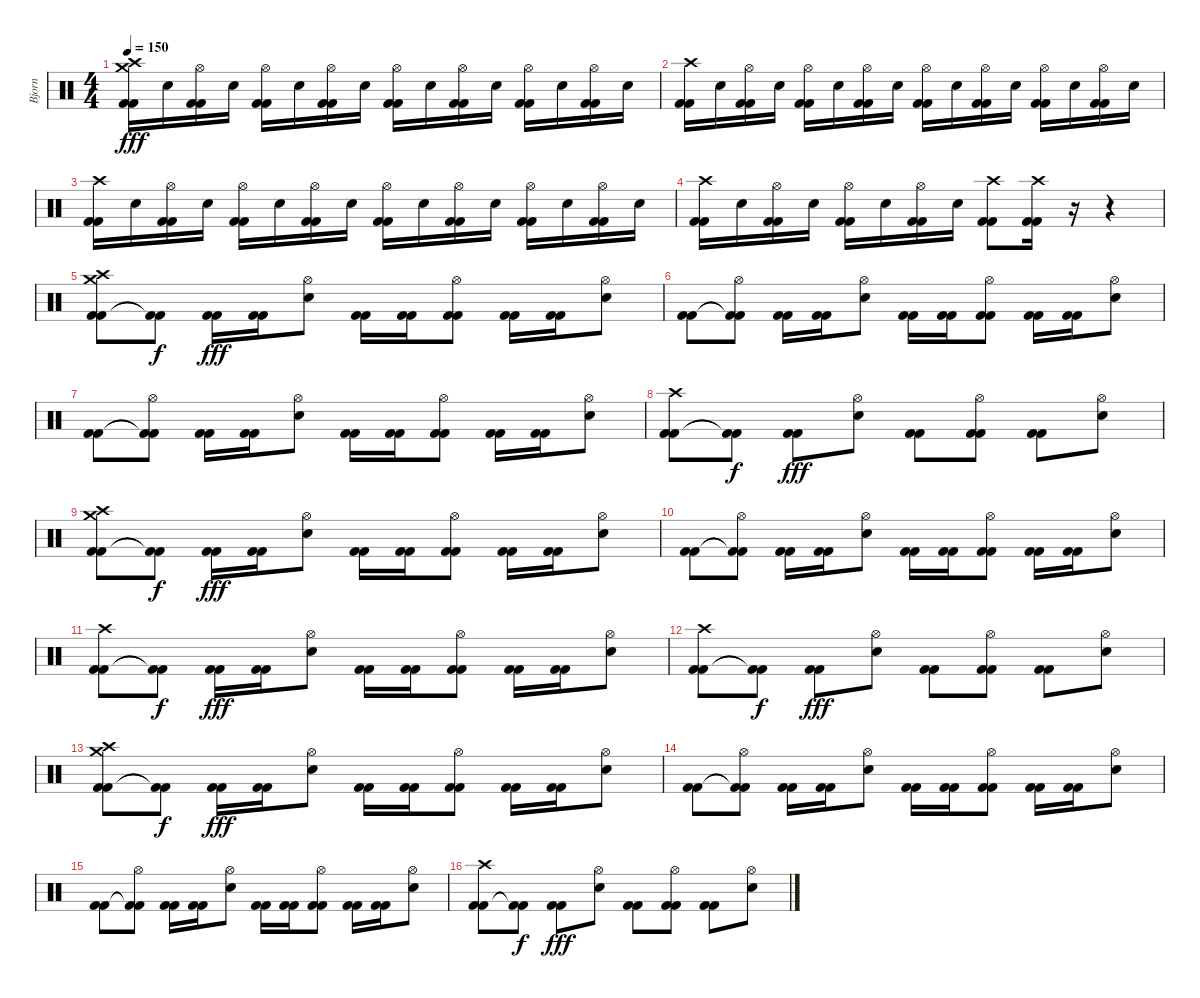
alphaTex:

\track ("Bjorn" "Bjorn") {instrument percussion}
\staff {score}
\articulation defaults
\ts (4 4)
\tempo 150
\clef neutral
\ks c
("Kick (hit) 2" "Kick (hit) 2" "Crash high (hit)" "Crash medium (hit)").16{dy fff} "Snare (hit) 2".16 ("Kick (hit) 2" "Kick (hit) 2" "Hi-Hat (open)").16 "Snare (hit) 2".16 ("Kick (hit) 2" "Kick (hit) 2" "Hi-Hat (open)").16 "Snare (hit) 2".16 ("Kick (hit) 2" "Kick (hit) 2" "Hi-Hat (open)").16 "Snare (hit) 2".16 ("Kick (hit) 2" "Kick (hit) 2" "Hi-Hat (open)").16 "Snare (hit) 2".16 ("Kick (hit) 2" "Kick (hit) 2" "Hi-Hat (open)").16 "Snare (hit) 2".16 ("Kick (hit) 2" "Kick (hit) 2" "Hi-Hat (open)").16 "Snare (hit) 2".16 ("Kick (hit) 2" "Kick (hit) 2" "Hi-Hat (open)").16 "Snare (hit) 2".16 |
("Kick (hit) 2" "Kick (hit) 2" "Crash high (hit)").16 "Snare (hit) 2".16 ("Kick (hit) 2" "Kick (hit) 2" "Hi-Hat (open)").16 "Snare (hit) 2".16 ("Kick (hit) 2" "Kick (hit) 2" "Hi-Hat (open)").16 "Snare (hit) 2".16 ("Kick (hit) 2" "Kick (hit) 2" "Hi-Hat (open)").16 "Snare (hit) 2".16 ("Kick (hit) 2" "Kick (hit) 2" "Hi-Hat (open)").16 "Snare (hit) 2".16 ("Kick (hit) 2" "Kick (hit) 2" "Hi-Hat (open)").16 "Snare (hit) 2".16 ("Kick (hit) 2" "Kick (hit) 2" "Hi-Hat (open)").16 "Snare (hit) 2".16 ("Kick (hit) 2" "Kick (hit) 2" "Hi-Hat (open)").16 "Snare (hit) 2".16 |
("Kick (hit) 2" "Kick (hit) 2" "Crash high (hit)").16 "Snare (hit) 2".16 ("Kick (hit) 2" "Kick (hit) 2" "Hi-Hat (open)").16 "Snare (hit) 2".16 ("Kick (hit) 2" "Kick (hit) 2" "Hi-Hat (open)").16 "Snare (hit) 2".16 ("Kick (hit) 2" "Kick (hit) 2" "Hi-Hat (open)").16 "Snare (hit) 2".16 ("Kick (hit) 2" "Kick (hit) 2" "Hi-Hat (open)").16 "Snare (hit) 2".16 ("Kick (hit) 2" "Kick (hit) 2" "Hi-Hat (open)").16 "Snare (hit) 2".16 ("Kick (hit) 2" "Kick (hit) 2" "Hi-Hat (open)").16 "Snare (hit) 2".16 ("Kick (hit) 2" "Kick (hit) 2" "Hi-Hat (open)").16 "Snare (hit) 2".16 |
("Kick (hit) 2" "Kick (hit) 2" "Crash high (hit)").16 "Snare (hit) 2".16 ("Kick (hit) 2" "Kick (hit) 2" "Hi-Hat (open)").16 "Snare (hit) 2".16 ("Kick (hit) 2" "Kick (hit) 2" "Hi-Hat (open)").16 "Snare (hit) 2".16 ("Kick (hit) 2" "Kick (hit) 2" "Hi-Hat (open)").16 "Snare (hit) 2".16 ("Kick (hit) 2" "Kick (hit) 2" "Crash high (hit)").8 ("Kick (hit) 2" "Kick (hit) 2" "Crash high (hit)").16 r.16 r.4 |
("Kick (hit) 2" "Kick (hit) 2" "Crash high (hit)" "Crash medium (hit)").8 ("Kick (hit) 2"{t} "Kick (hit) 2"{t}).8{dy f} ("Kick (hit) 2" "Kick (hit) 2").16{dy fff} ("Kick (hit) 2" "Kick (hit) 2").16 ("Snare (hit) 2" "Hi-Hat (open)").8 ("Kick (hit) 2" "Kick (hit) 2").16 ("Kick (hit) 2" "Kick (hit) 2").16 ("Kick (hit) 2" "Kick (hit) 2" "Hi-Hat (open)").8 ("Kick (hit) 2" "Kick (hit) 2").16 ("Kick (hit) 2" "Kick (hit) 2").16 ("Snare (hit) 2" "Hi-Hat (open)").8 |
("Kick (hit) 2" "Kick (hit) 2").8 ("Kick (hit) 2"{t} "Kick (hit) 2"{t} "Hi-Hat (open)").8 ("Kick (hit) 2" "Kick (hit) 2").16 ("Kick (hit) 2" "Kick (hit) 2").16 ("Snare (hit) 2" "Hi-Hat (open)").8 ("Kick (hit) 2" "Kick (hit) 2").16 ("Kick (hit) 2" "Kick (hit) 2").16 ("Kick (hit) 2" "Kick (hit) 2" "Hi-Hat (open)").8 ("Kick (hit) 2" "Kick (hit) 2").16 ("Kick (hit) 2" "Kick (hit) 2").16 ("Snare (hit) 2" "Hi-Hat (open)").8 |
("Kick (hit) 2" "Kick (hit) 2").8 ("Kick (hit) 2"{t} "Kick (hit) 2"{t} "Hi-Hat (open)").8 ("Kick (hit) 2" "Kick (hit) 2").16 ("Kick (hit) 2" "Kick (hit) 2").16 ("Snare (hit) 2" "Hi-Hat (open)").8 ("Kick (hit) 2" "Kick (hit) 2").16 ("Kick (hit) 2" "Kick (hit) 2").16 ("Kick (hit) 2" "Kick (hit) 2" "Hi-Hat (open)").8 ("Kick (hit) 2" "Kick (hit) 2").16 ("Kick (hit) 2" "Kick (hit) 2").16 ("Snare (hit) 2" "Hi-Hat (open)").8 |
("Kick (hit) 2" "Kick (hit) 2" "Crash high (hit)").8 ("Kick (hit) 2"{t} "Kick (hit) 2"{t}).8{dy f} ("Kick (hit) 2" "Kick (hit) 2").8{dy fff} ("Snare (hit) 2" "Hi-Hat (open)").8 ("Kick (hit) 2" "Kick (hit) 2").8 ("Kick (hit) 2" "Kick (hit) 2" "Hi-Hat (open)").8 ("Kick (hit) 2" "Kick (hit) 2").8 ("Snare (hit) 2" "Hi-Hat (open)").8 |
("Kick (hit) 2" "Kick (hit) 2" "Crash high (hit)" "Crash medium (hit)").8 ("Kick (hit) 2"{t} "Kick (hit) 2"{t}).8{dy f} ("Kick (hit) 2" "Kick (hit) 2").16{dy fff} ("Kick (hit) 2" "Kick (hit) 2").16 ("Snare (hit) 2" "Hi-Hat (open)").8 ("Kick (hit) 2" "Kick (hit) 2").16 ("Kick (hit) 2" "Kick (hit) 2").16 ("Kick (hit) 2" "Kick (hit) 2" "Hi-Hat (open)").8 ("Kick (hit) 2" "Kick (hit) 2").16 ("Kick (hit) 2" "Kick (hit) 2").16 ("Snare (hit) 2" "Hi-Hat (open)").8 |
("Kick (hit) 2" "Kick (hit) 2").8 ("Kick (hit) 2"{t} "Kick (hit) 2"{t} "Hi-Hat (open)").8 ("Kick (hit) 2" "Kick (hit) 2").16 ("Kick (hit) 2" "Kick (hit) 2").16 ("Snare (hit) 2" "Hi-Hat (open)").8 ("Kick (hit) 2" "Kick (hit) 2").16 ("Kick (hit) 2" "Kick (hit) 2").16 ("Kick (hit) 2" "Kick (hit) 2" "Hi-Hat (open)").8 ("Kick (hit) 2" "Kick (hit) 2").16 ("Kick (hit) 2" "Kick (hit) 2").16 ("Snare (hit) 2" "Hi-Hat (open)").8 |
("Kick (hit) 2" "Kick (hit) 2" "Crash high (hit)").8 ("Kick (hit) 2"{t} "Kick (hit) 2"{t}).8{dy f} ("Kick (hit) 2" "Kick (hit) 2").16{dy fff} ("Kick (hit) 2" "Kick (hit) 2").16 ("Snare (hit) 2" "Hi-Hat (open)").8 ("Kick (hit) 2" "Kick (hit) 2").16 ("Kick (hit) 2" "Kick (hit) 2").16 ("Kick (hit) 2" "Kick (hit) 2" "Hi-Hat (open)").8 ("Kick (hit) 2" "Kick (hit) 2").16 ("Kick (hit) 2" "Kick (hit) 2").16 ("Snare (hit) 2" "Hi-Hat (open)").8 |
("Kick (hit) 2" "Kick (hit) 2" "Crash high (hit)").8 ("Kick (hit) 2"{t} "Kick (hit) 2"{t}).8{dy f} ("Kick (hit) 2" "Kick (hit) 2").8{dy fff} ("Snare (hit) 2" "Hi-Hat (open)").8 ("Kick (hit) 2" "Kick (hit) 2").8 ("Kick (hit) 2" "Kick (hit) 2" "Hi-Hat (open)").8 ("Kick (hit) 2" "Kick (hit) 2").8 ("Snare (hit) 2" "Hi-Hat (open)").8 |
("Kick (hit) 2" "Kick (hit) 2" "Crash high (hit)" "Crash medium (hit)").8 ("Kick (hit) 2"{t} "Kick (hit) 2"{t}).8{dy f} ("Kick (hit) 2" "Kick (hit) 2").16{dy fff} ("Kick (hit) 2" "Kick (hit) 2").16 ("Snare (hit) 2" "Hi-Hat (open)").8 ("Kick (hit) 2" "Kick (hit) 2").16 ("Kick (hit) 2" "Kick (hit) 2").16 ("Kick (hit) 2" "Kick (hit) 2" "Hi-Hat (open)").8 ("Kick (hit) 2" "Kick (hit) 2").16 ("Kick (hit) 2" "Kick (hit) 2").16 ("Snare (hit) 2" "Hi-Hat (open)").8 |
("Kick (hit) 2" "Kick (hit) 2").8 ("Kick (hit) 2"{t} "Kick (hit) 2"{t} "Hi-Hat (open)").8 ("Kick (hit) 2" "Kick (hit) 2").16 ("Kick (hit) 2" "Kick (hit) 2").16 ("Snare (hit) 2" "Hi-Hat (open)").8 ("Kick (hit) 2" "Kick (hit) 2").16 ("Kick (hit) 2" "Kick (hit) 2").16 ("Kick (hit) 2" "Kick (hit) 2" "Hi-Hat (open)").8 ("Kick (hit) 2" "Kick (hit) 2").16 ("Kick (hit) 2" "Kick (hit) 2").16 ("Snare (hit) 2" "Hi-Hat (open)").8 |
("Kick (hit) 2" "Kick (hit) 2").8 ("Kick (hit) 2"{t} "Kick (hit) 2"{t} "Hi-Hat (open)").8 ("Kick (hit) 2" "Kick (hit) 2").16 ("Kick (hit) 2" "Kick (hit) 2").16 ("Snare (hit) 2" "Hi-Hat (open)").8 ("Kick (hit) 2" "Kick (hit) 2").16 ("Kick (hit) 2" "Kick (hit) 2").16 ("Kick (hit) 2" "Kick (hit) 2" "Hi-Hat (open)").8 ("Kick (hit) 2" "Kick (hit) 2").16 ("Kick (hit) 2" "Kick (hit) 2").16 ("Snare (hit) 2" "Hi-Hat (open)").8 |
("Kick (hit) 2" "Kick (hit) 2" "Crash high (hit)").8 ("Kick (hit) 2"{t} "Kick (hit) 2"{t}).8{dy f} ("Kick (hit) 2" "Kick (hit) 2").8{dy fff} ("Snare (hit) 2" "Hi-Hat (open)").8 ("Kick (hit) 2" "Kick (hit) 2").8 ("Kick (hit) 2" "Kick (hit) 2" "Hi-Hat (open)").8 ("Kick (hit) 2" "Kick (hit) 2").8 ("Snare (hit) 2" "Hi-Hat (open)").8
